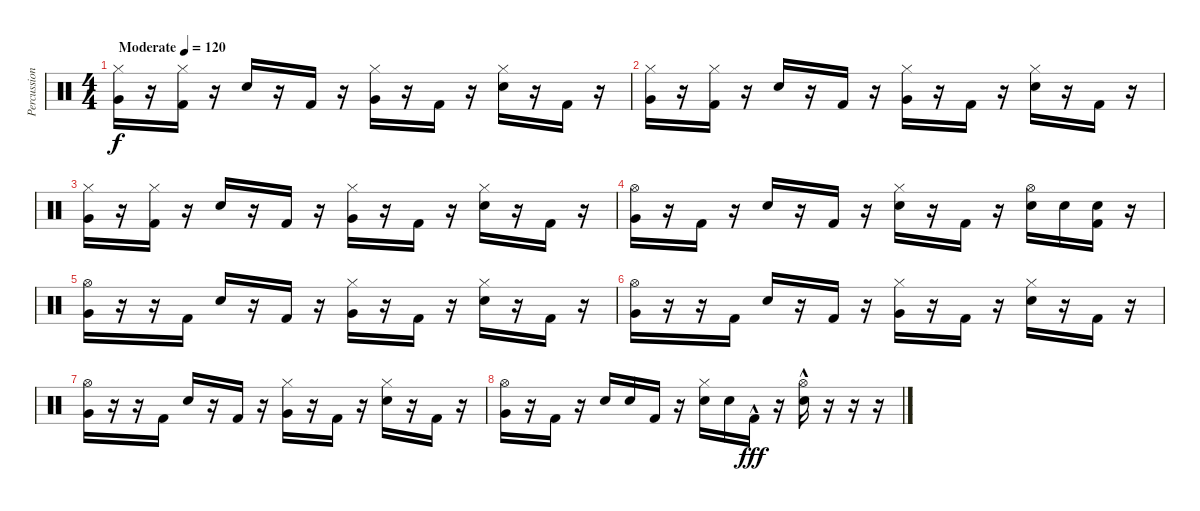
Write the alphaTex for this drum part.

\track ("Percussion" "Percussion") {instrument percussion}
\staff {score}
\articulation defaults
\ts (4 4)
\tempo (120 "Moderate")
\clef neutral
\ks c
("Very Low Tom (hit)" "Hi-Hat (closed)").16{dy f} r.16 ("Kick (hit) 2" "Hi-Hat (closed)").16 r.16 "Electric Snare (hit)".16 r.16 "Kick (hit) 2".16 r.16 ("Very Low Tom (hit)" "Hi-Hat (closed)").16 r.16 "Kick (hit) 2".16 r.16 ("Electric Snare (hit)" "Hi-Hat (closed)").16 r.16 "Kick (hit) 2".16 r.16 |
("Very Low Tom (hit)" "Hi-Hat (closed)").16 r.16 ("Kick (hit) 2" "Hi-Hat (closed)").16 r.16 "Electric Snare (hit)".16 r.16 "Kick (hit) 2".16 r.16 ("Very Low Tom (hit)" "Hi-Hat (closed)").16 r.16 "Kick (hit) 2".16 r.16 ("Electric Snare (hit)" "Hi-Hat (closed)").16 r.16 "Kick (hit) 2".16 r.16 |
("Very Low Tom (hit)" "Hi-Hat (closed)").16 r.16 ("Kick (hit) 2" "Hi-Hat (closed)").16 r.16 "Electric Snare (hit)".16 r.16 "Kick (hit) 2".16 r.16 ("Very Low Tom (hit)" "Hi-Hat (closed)").16 r.16 "Kick (hit) 2".16 r.16 ("Electric Snare (hit)" "Hi-Hat (closed)").16 r.16 "Kick (hit) 2".16 r.16 |
("Very Low Tom (hit)" "Hi-Hat (open)").16 r.16 "Kick (hit) 2".16 r.16 "Electric Snare (hit)".16 r.16 "Kick (hit) 2".16 r.16 ("Electric Snare (hit)" "Hi-Hat (closed)").16 r.16 "Kick (hit) 2".16 r.16 ("Electric Snare (hit)" "Hi-Hat (open)").16 "Electric Snare (hit)".16 ("Kick (hit) 2" "Electric Snare (hit)").16 r.16 |
("Very Low Tom (hit)" "Hi-Hat (open)").16 r.16 r.16 "Kick (hit) 2".16 "Electric Snare (hit)".16 r.16 "Kick (hit) 2".16 r.16 ("Very Low Tom (hit)" "Hi-Hat (closed)").16 r.16 "Kick (hit) 2".16 r.16 ("Electric Snare (hit)" "Hi-Hat (closed)").16 r.16 "Kick (hit) 2".16 r.16 |
("Very Low Tom (hit)" "Hi-Hat (open)").16 r.16 r.16 "Kick (hit) 2".16 "Electric Snare (hit)".16 r.16 "Kick (hit) 2".16 r.16 ("Very Low Tom (hit)" "Hi-Hat (closed)").16 r.16 "Kick (hit) 2".16 r.16 ("Electric Snare (hit)" "Hi-Hat (closed)").16 r.16 "Kick (hit) 2".16 r.16 |
("Very Low Tom (hit)" "Hi-Hat (open)").16 r.16 r.16 "Kick (hit) 2".16 "Electric Snare (hit)".16 r.16 "Kick (hit) 2".16 r.16 ("Very Low Tom (hit)" "Hi-Hat (closed)").16 r.16 "Kick (hit) 2".16 r.16 ("Electric Snare (hit)" "Hi-Hat (closed)").16 r.16 "Kick (hit) 2".16 r.16 |
("Very Low Tom (hit)" "Hi-Hat (open)").16 r.16 "Kick (hit) 2".16 r.16 "Electric Snare (hit)".16 "Electric Snare (hit)".16 "Kick (hit) 2".16 r.16 ("Electric Snare (hit)" "Hi-Hat (closed)").16 "Electric Snare (hit)".16 "Kick (hit) 2"{hac}.16{dy fff} r.16 ("Electric Snare (hit)"{hac} "Hi-Hat (open)"{hac}).16 r.16 r.16 r.16
